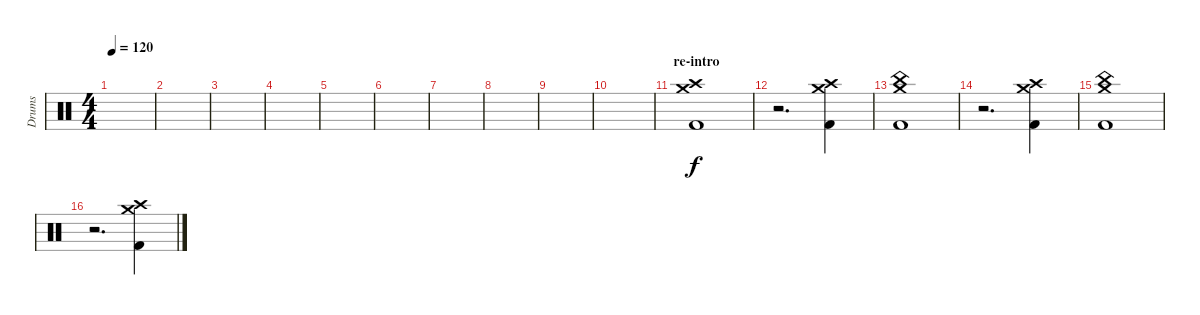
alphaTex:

\track ("Drums" "Drums") {instrument percussion}
\staff {score}
\articulation defaults
\ts (4 4)
\tempo 120
\clef neutral
\ks c
|
|
|
|
|
|
|
|
|
|
\section ("" "re-intro")
("Crash medium (hit)" "Crash high (hit)" "Kick (hit) 2").1 |
r.2{d} ("Crash medium (hit)" "Crash high (hit)" "Kick (hit) 2").4 |
("Crash medium (hit)" "China (hit)" "Kick (hit) 2").1 |
r.2{d} ("Crash medium (hit)" "Crash high (hit)" "Kick (hit) 2").4 |
("Crash medium (hit)" "China (hit)" "Kick (hit) 2").1 |
r.2{d} ("Crash medium (hit)" "Crash high (hit)" "Kick (hit) 2").4
